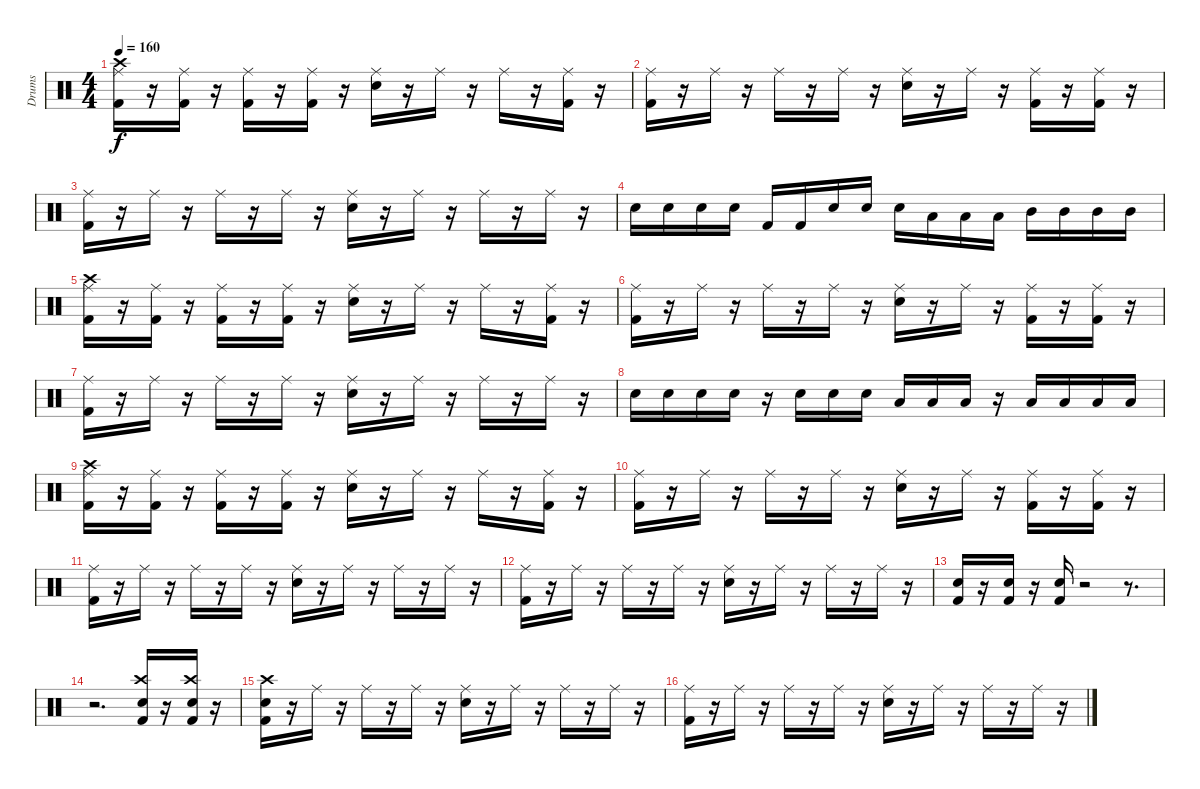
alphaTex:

\track ("Drums               " "Drums     ") {instrument percussion}
\staff {score}
\articulation defaults
\ts (4 4)
\tempo 160
\clef neutral
\ks c
("Kick (hit) 2" "Crash high (hit)" "Ride (middle)").16{dy f} r.16 ("Kick (hit) 2" "Ride (middle)").16 r.16 ("Kick (hit) 2" "Ride (middle)").16 r.16 ("Kick (hit) 2" "Ride (middle)").16 r.16 ("Snare (hit) 2" "Ride (middle)").16 r.16 "Ride (middle)".16 r.16 "Ride (middle)".16 r.16 ("Kick (hit) 2" "Ride (middle)").16 r.16 |
("Kick (hit) 2" "Ride (middle)").16 r.16 "Ride (middle)".16 r.16 "Ride (middle)".16 r.16 "Ride (middle)".16 r.16 ("Snare (hit) 2" "Ride (middle)").16 r.16 "Ride (middle)".16 r.16 ("Kick (hit) 2" "Ride (middle)").16 r.16 ("Kick (hit) 2" "Ride (middle)").16 r.16 |
("Kick (hit) 2" "Ride (middle)").16 r.16 "Ride (middle)".16 r.16 "Ride (middle)".16 r.16 "Ride (middle)".16 r.16 ("Snare (hit) 2" "Ride (middle)").16 r.16 "Ride (middle)".16 r.16 "Ride (middle)".16 r.16 "Ride (middle)".16 r.16 |
"Snare (hit) 2".16 "Snare (hit) 2".16 "Snare (hit) 2".16 "Snare (hit) 2".16 "Kick (hit) 2".16 "Kick (hit) 2".16 "Snare (hit) 2".16 "Snare (hit) 2".16 "Snare (hit) 2".16 "Low Tom (hit)".16 "Low Tom (hit)".16 "Low Tom (hit)".16 "Mid Tom (hit)".16 "Mid Tom (hit)".16 "Mid Tom (hit)".16 "Mid Tom (hit)".16 |
("Kick (hit) 2" "Crash high (hit)" "Ride (middle)").16 r.16 ("Kick (hit) 2" "Ride (middle)").16 r.16 ("Kick (hit) 2" "Ride (middle)").16 r.16 ("Kick (hit) 2" "Ride (middle)").16 r.16 ("Snare (hit) 2" "Ride (middle)").16 r.16 "Ride (middle)".16 r.16 "Ride (middle)".16 r.16 ("Kick (hit) 2" "Ride (middle)").16 r.16 |
("Kick (hit) 2" "Ride (middle)").16 r.16 "Ride (middle)".16 r.16 "Ride (middle)".16 r.16 "Ride (middle)".16 r.16 ("Snare (hit) 2" "Ride (middle)").16 r.16 "Ride (middle)".16 r.16 ("Kick (hit) 2" "Ride (middle)").16 r.16 ("Kick (hit) 2" "Ride (middle)").16 r.16 |
("Kick (hit) 2" "Ride (middle)").16 r.16 "Ride (middle)".16 r.16 "Ride (middle)".16 r.16 "Ride (middle)".16 r.16 ("Snare (hit) 2" "Ride (middle)").16 r.16 "Ride (middle)".16 r.16 "Ride (middle)".16 r.16 "Ride (middle)".16 r.16 |
"Snare (hit) 2".16 "Snare (hit) 2".16 "Snare (hit) 2".16 "Snare (hit) 2".16 r.16 "Snare (hit) 2".16 "Snare (hit) 2".16 "Snare (hit) 2".16 "Low Tom (hit)".16 "Low Tom (hit)".16 "Low Tom (hit)".16 r.16 "Low Floor Tom (hit)".16 "Low Floor Tom (hit)".16 "Low Floor Tom (hit)".16 "Low Floor Tom (hit)".16 |
("Kick (hit) 2" "Crash high (hit)" "Ride (middle)").16 r.16 ("Kick (hit) 2" "Ride (middle)").16 r.16 ("Kick (hit) 2" "Ride (middle)").16 r.16 ("Kick (hit) 2" "Ride (middle)").16 r.16 ("Snare (hit) 2" "Ride (middle)").16 r.16 "Ride (middle)".16 r.16 "Ride (middle)".16 r.16 ("Kick (hit) 2" "Ride (middle)").16 r.16 |
("Kick (hit) 2" "Ride (middle)").16 r.16 "Ride (middle)".16 r.16 "Ride (middle)".16 r.16 "Ride (middle)".16 r.16 ("Snare (hit) 2" "Ride (middle)").16 r.16 "Ride (middle)".16 r.16 ("Kick (hit) 2" "Ride (middle)").16 r.16 ("Kick (hit) 2" "Ride (middle)").16 r.16 |
("Kick (hit) 2" "Ride (middle)").16 r.16 "Ride (middle)".16 r.16 "Ride (middle)".16 r.16 "Ride (middle)".16 r.16 ("Snare (hit) 2" "Ride (middle)").16 r.16 "Ride (middle)".16 r.16 "Ride (middle)".16 r.16 "Ride (middle)".16 r.16 |
("Kick (hit) 2" "Ride (middle)").16 r.16 "Ride (middle)".16 r.16 "Ride (middle)".16 r.16 "Ride (middle)".16 r.16 ("Electric Snare (hit)" "Ride (middle)").16 r.16 "Ride (middle)".16 r.16 "Ride (middle)".16 r.16 "Ride (middle)".16 r.16 |
("Kick (hit) 2" "Snare (hit) 2").16 r.16 ("Kick (hit) 2" "Snare (hit) 2").16 r.16 ("Kick (hit) 2" "Snare (hit) 2").16 r.2 r.8{d} |
r.2{d} ("Kick (hit) 2" "Snare (hit) 2" "Crash high (hit)").16 r.16 ("Kick (hit) 2" "Snare (hit) 2" "Crash high (hit)").16 r.16 |
("Kick (hit) 2" "Snare (hit) 2" "Crash high (hit)").16 r.16 "Ride (middle)".16 r.16 "Ride (middle)".16 r.16 "Ride (middle)".16 r.16 ("Electric Snare (hit)" "Ride (middle)").16 r.16 "Ride (middle)".16 r.16 "Ride (middle)".16 r.16 "Ride (middle)".16 r.16 |
("Kick (hit) 2" "Ride (middle)").16 r.16 "Ride (middle)".16 r.16 "Ride (middle)".16 r.16 "Ride (middle)".16 r.16 ("Snare (hit) 2" "Ride (middle)").16 r.16 "Ride (middle)".16 r.16 "Ride (middle)".16 r.16 "Ride (middle)".16 r.16
